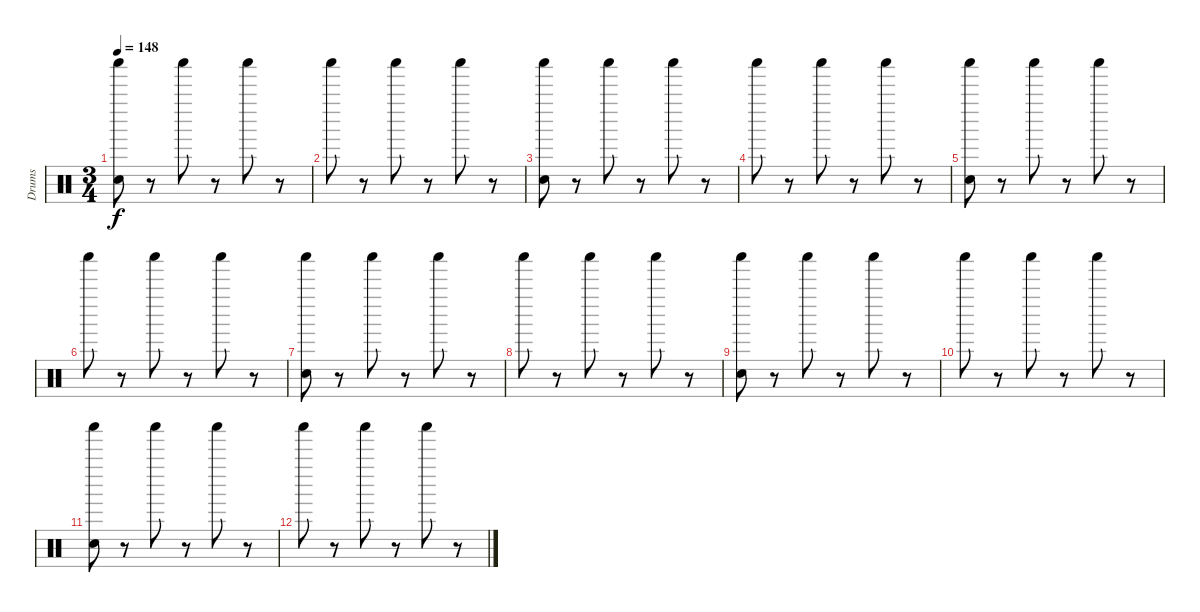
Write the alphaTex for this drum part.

\track ("Drums" "Drums") {instrument percussion}
\staff {score}
\articulation defaults
\ts (3 4)
\tempo 148
\clef neutral
\ks c
("Shaker (hit)" "Hand Clap (hit)").8{dy f} r.8 "Shaker (hit)".8 r.8 "Shaker (hit)".8 r.8 |
"Shaker (hit)".8 r.8 "Shaker (hit)".8 r.8 "Shaker (hit)".8 r.8 |
("Shaker (hit)" "Hand Clap (hit)").8 r.8 "Shaker (hit)".8 r.8 "Shaker (hit)".8 r.8 |
"Shaker (hit)".8 r.8 "Shaker (hit)".8 r.8 "Shaker (hit)".8 r.8 |
("Shaker (hit)" "Hand Clap (hit)").8 r.8 "Shaker (hit)".8 r.8 "Shaker (hit)".8 r.8 |
"Shaker (hit)".8 r.8 "Shaker (hit)".8 r.8 "Shaker (hit)".8 r.8 |
("Shaker (hit)" "Hand Clap (hit)").8 r.8 "Shaker (hit)".8 r.8 "Shaker (hit)".8 r.8 |
"Shaker (hit)".8 r.8 "Shaker (hit)".8 r.8 "Shaker (hit)".8 r.8 |
("Shaker (hit)" "Hand Clap (hit)").8 r.8 "Shaker (hit)".8 r.8 "Shaker (hit)".8 r.8 |
"Shaker (hit)".8 r.8 "Shaker (hit)".8 r.8 "Shaker (hit)".8 r.8 |
("Shaker (hit)" "Hand Clap (hit)").8 r.8 "Shaker (hit)".8 r.8 "Shaker (hit)".8 r.8 |
"Shaker (hit)".8 r.8 "Shaker (hit)".8 r.8 "Shaker (hit)".8 r.8
